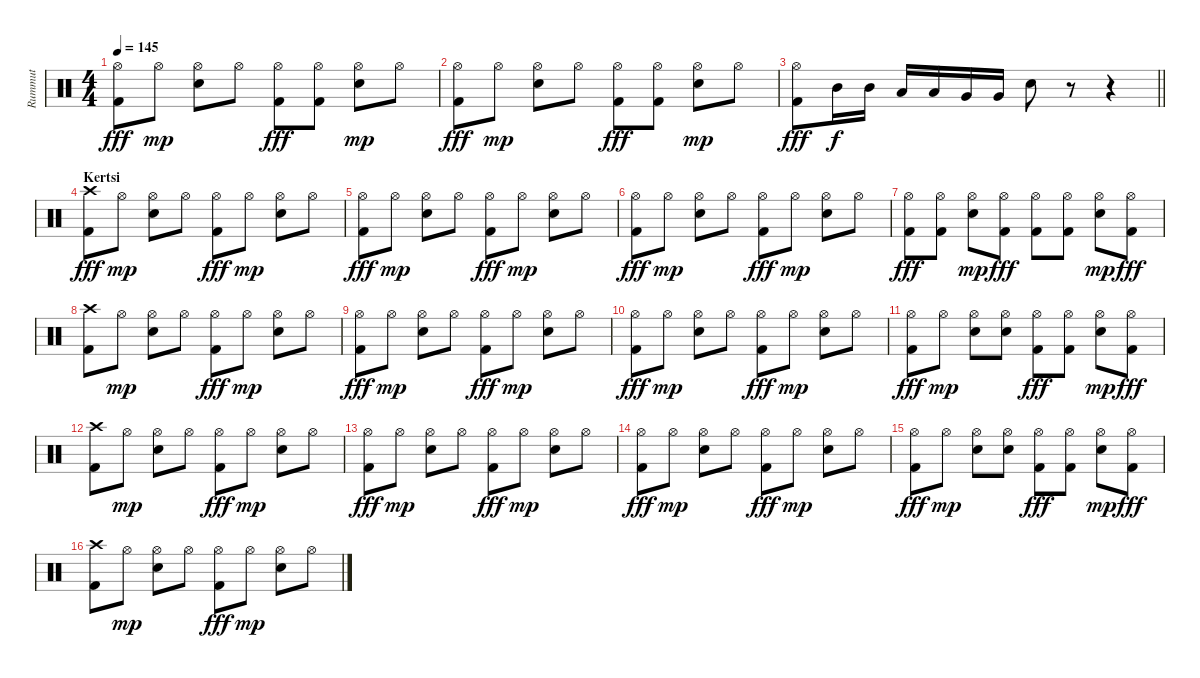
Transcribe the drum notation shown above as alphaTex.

\track ("Rummut" "Rummut") {instrument percussion}
\staff {score}
\articulation defaults
\ts (4 4)
\tempo 145
\clef neutral
\ks c
("Hi-Hat (open)" "Kick (hit) 2").8{dy fff} "Hi-Hat (open)".8{dy mp} ("Hi-Hat (open)" "Snare (hit) 2").8 "Hi-Hat (open)".8 ("Hi-Hat (open)" "Kick (hit) 2").8{dy fff} ("Hi-Hat (open)" "Kick (hit) 2").8 ("Hi-Hat (open)" "Snare (hit) 2").8{dy mp} "Hi-Hat (open)".8 |
("Hi-Hat (open)" "Kick (hit) 2").8{dy fff} "Hi-Hat (open)".8{dy mp} ("Hi-Hat (open)" "Snare (hit) 2").8 "Hi-Hat (open)".8 ("Hi-Hat (open)" "Kick (hit) 2").8{dy fff} ("Hi-Hat (open)" "Kick (hit) 2").8 ("Hi-Hat (open)" "Snare (hit) 2").8{dy mp} "Hi-Hat (open)".8 |
\barLineRight lightlight
("Hi-Hat (open)" "Kick (hit) 2").8{dy fff} "Mid Tom (hit)".16{dy f} "Mid Tom (hit)".16 "Low Tom (hit)".16 "Low Tom (hit)".16 "Very Low Tom (hit)".16 "Very Low Tom (hit)".16 "Snare (hit) 2".8 r.8 r.4 |
\section ("" "Kertsi")
("Crash high (hit)" "Kick (hit) 2").8{dy fff} "Hi-Hat (open)".8{dy mp} ("Hi-Hat (open)" "Snare (hit) 2").8 "Hi-Hat (open)".8 ("Hi-Hat (open)" "Kick (hit) 2").8{dy fff} "Hi-Hat (open)".8{dy mp} ("Hi-Hat (open)" "Snare (hit) 2").8 "Hi-Hat (open)".8 |
("Hi-Hat (open)" "Kick (hit) 2").8{dy fff} "Hi-Hat (open)".8{dy mp} ("Hi-Hat (open)" "Snare (hit) 2").8 "Hi-Hat (open)".8 ("Hi-Hat (open)" "Kick (hit) 2").8{dy fff} "Hi-Hat (open)".8{dy mp} ("Hi-Hat (open)" "Snare (hit) 2").8 "Hi-Hat (open)".8 |
("Hi-Hat (open)" "Kick (hit) 2").8{dy fff} "Hi-Hat (open)".8{dy mp} ("Hi-Hat (open)" "Snare (hit) 2").8 "Hi-Hat (open)".8 ("Hi-Hat (open)" "Kick (hit) 2").8{dy fff} "Hi-Hat (open)".8{dy mp} ("Hi-Hat (open)" "Snare (hit) 2").8 "Hi-Hat (open)".8 |
("Hi-Hat (open)" "Kick (hit) 2").8{dy fff} ("Hi-Hat (open)" "Kick (hit) 2").8 ("Hi-Hat (open)" "Snare (hit) 2").8{dy mp} ("Hi-Hat (open)" "Kick (hit) 2").8{dy fff} ("Hi-Hat (open)" "Kick (hit) 2").8 ("Hi-Hat (open)" "Kick (hit) 2").8 ("Hi-Hat (open)" "Snare (hit) 2").8{dy mp} ("Hi-Hat (open)" "Kick (hit) 2").8{dy fff} |
("Crash high (hit)" "Kick (hit) 2").8 "Hi-Hat (open)".8{dy mp} ("Hi-Hat (open)" "Snare (hit) 2").8 "Hi-Hat (open)".8 ("Hi-Hat (open)" "Kick (hit) 2").8{dy fff} "Hi-Hat (open)".8{dy mp} ("Hi-Hat (open)" "Snare (hit) 2").8 "Hi-Hat (open)".8 |
("Hi-Hat (open)" "Kick (hit) 2").8{dy fff} "Hi-Hat (open)".8{dy mp} ("Hi-Hat (open)" "Snare (hit) 2").8 "Hi-Hat (open)".8 ("Hi-Hat (open)" "Kick (hit) 2").8{dy fff} "Hi-Hat (open)".8{dy mp} ("Hi-Hat (open)" "Snare (hit) 2").8 "Hi-Hat (open)".8 |
("Hi-Hat (open)" "Kick (hit) 2").8{dy fff} "Hi-Hat (open)".8{dy mp} ("Hi-Hat (open)" "Snare (hit) 2").8 "Hi-Hat (open)".8 ("Hi-Hat (open)" "Kick (hit) 2").8{dy fff} "Hi-Hat (open)".8{dy mp} ("Hi-Hat (open)" "Snare (hit) 2").8 "Hi-Hat (open)".8 |
("Hi-Hat (open)" "Kick (hit) 2").8{dy fff} "Hi-Hat (open)".8{dy mp} ("Hi-Hat (open)" "Snare (hit) 2").8 ("Hi-Hat (open)" "Snare (hit) 2").8 ("Hi-Hat (open)" "Kick (hit) 2").8{dy fff} ("Hi-Hat (open)" "Kick (hit) 2").8 ("Hi-Hat (open)" "Snare (hit) 2").8{dy mp} ("Hi-Hat (open)" "Kick (hit) 2").8{dy fff} |
("Crash high (hit)" "Kick (hit) 2").8 "Hi-Hat (open)".8{dy mp} ("Hi-Hat (open)" "Snare (hit) 2").8 "Hi-Hat (open)".8 ("Hi-Hat (open)" "Kick (hit) 2").8{dy fff} "Hi-Hat (open)".8{dy mp} ("Hi-Hat (open)" "Snare (hit) 2").8 "Hi-Hat (open)".8 |
("Hi-Hat (open)" "Kick (hit) 2").8{dy fff} "Hi-Hat (open)".8{dy mp} ("Hi-Hat (open)" "Snare (hit) 2").8 "Hi-Hat (open)".8 ("Hi-Hat (open)" "Kick (hit) 2").8{dy fff} "Hi-Hat (open)".8{dy mp} ("Hi-Hat (open)" "Snare (hit) 2").8 "Hi-Hat (open)".8 |
("Hi-Hat (open)" "Kick (hit) 2").8{dy fff} "Hi-Hat (open)".8{dy mp} ("Hi-Hat (open)" "Snare (hit) 2").8 "Hi-Hat (open)".8 ("Hi-Hat (open)" "Kick (hit) 2").8{dy fff} "Hi-Hat (open)".8{dy mp} ("Hi-Hat (open)" "Snare (hit) 2").8 "Hi-Hat (open)".8 |
("Hi-Hat (open)" "Kick (hit) 2").8{dy fff} "Hi-Hat (open)".8{dy mp} ("Hi-Hat (open)" "Snare (hit) 2").8 ("Hi-Hat (open)" "Snare (hit) 2").8 ("Hi-Hat (open)" "Kick (hit) 2").8{dy fff} ("Hi-Hat (open)" "Kick (hit) 2").8 ("Hi-Hat (open)" "Snare (hit) 2").8{dy mp} ("Hi-Hat (open)" "Kick (hit) 2").8{dy fff} |
("Crash high (hit)" "Kick (hit) 2").8 "Hi-Hat (open)".8{dy mp} ("Hi-Hat (open)" "Snare (hit) 2").8 "Hi-Hat (open)".8 ("Hi-Hat (open)" "Kick (hit) 2").8{dy fff} "Hi-Hat (open)".8{dy mp} ("Hi-Hat (open)" "Snare (hit) 2").8 "Hi-Hat (open)".8
